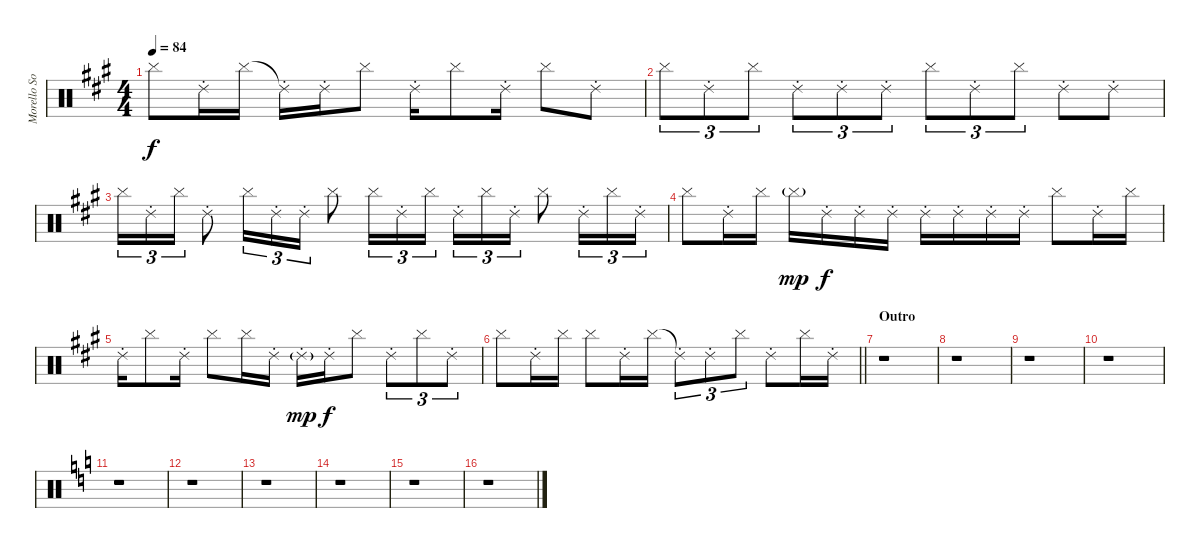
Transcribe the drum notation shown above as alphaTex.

\track ("Morello Solo" "Morello So") {instrument percussion}
\staff {score}
\articulation defaults
\ts (4 4)
\tempo 84
\clef neutral
\ks a "Cymbal (hit)".8{dy f} "Ride (choke) 2".16 "Cymbal (hit)".16 "Ride (choke) 2"{t}.16 "Ride (choke) 2".16 "Cymbal (hit)".8 "Ride (choke) 2".16 "Cymbal (hit)".8 "Ride (choke) 2".16 "Cymbal (hit)".8 "Ride (choke) 2".8
|
"Cymbal (hit)".8{tu (3 2)} "Ride (choke) 2".8{tu (3 2)} "Cymbal (hit)".8{tu (3 2)} "Ride (choke) 2".8{tu (3 2)} "Ride (choke) 2".8{tu (3 2)} "Ride (choke) 2".8{tu (3 2)} "Cymbal (hit)".8{tu (3 2)} "Ride (choke) 2".8{tu (3 2)} "Cymbal (hit)".8{tu (3 2)} "Ride (choke) 2".8 "Ride (choke) 2".8 |
"Cymbal (hit)".16{tu (3 2)} "Ride (choke) 2".16{tu (3 2)} "Cymbal (hit)".16{tu (3 2)} "Ride (choke) 2".8 "Cymbal (hit)".16{tu (3 2)} "Ride (choke) 2".16{tu (3 2)} "Ride (choke) 2".16{tu (3 2)} "Cymbal (hit)".8 "Cymbal (hit)".16{tu (3 2)} "Ride (choke) 2".16{tu (3 2)} "Cymbal (hit)".16{tu (3 2) beam splitsecondary} "Ride (choke) 2".16{tu (3 2)} "Cymbal (hit)".16{tu (3 2)} "Ride (choke) 2".16{tu (3 2)} "Cymbal (hit)".8 "Ride (choke) 2".16{tu (3 2)} "Cymbal (hit)".16{tu (3 2)} "Ride (choke) 2".16{tu (3 2)} |
"Cymbal (hit)".8 "Ride (choke) 2".16 "Cymbal (hit)".16 "Cymbal (hit)"{g}.16{dy mp} "Ride (choke) 2".16{dy f} "Ride (choke) 2".16 "Ride (choke) 2".16 "Ride (choke) 2".16 "Ride (choke) 2".16 "Ride (choke) 2".16 "Ride (choke) 2".16 "Cymbal (hit)".8 "Ride (choke) 2".16 "Cymbal (hit)".16 |
"Ride (choke) 2".16 "Cymbal (hit)".8 "Ride (choke) 2".16 "Cymbal (hit)".8 "Cymbal (hit)".16 "Ride (choke) 2".16 "Ride (choke) 2"{g}.16{dy mp} "Ride (choke) 2".16{dy f} "Cymbal (hit)".8 "Ride (choke) 2".8{tu (3 2)} "Cymbal (hit)".8{tu (3 2)} "Ride (choke) 2".8{tu (3 2)} |
\barLineRight lightlight "Cymbal (hit)".8 "Ride (choke) 2".16 "Cymbal (hit)".16 "Cymbal (hit)".8 "Ride (choke) 2".16 "Cymbal (hit)".16 "Ride (choke) 2"{t}.8{tu (3 2)} "Ride (choke) 2".8{tu (3 2)} "Cymbal (hit)".8{tu (3 2)} "Ride (choke) 2".8 "Cymbal (hit)".16 "Ride (choke) 2".16
|
\section ("" "Outro")
r.1 |
r.1 |
r.1 |
r.1 |
\ks c
r.1 |
r.1 |
r.1 |
r.1 |
r.1 |
r.1
